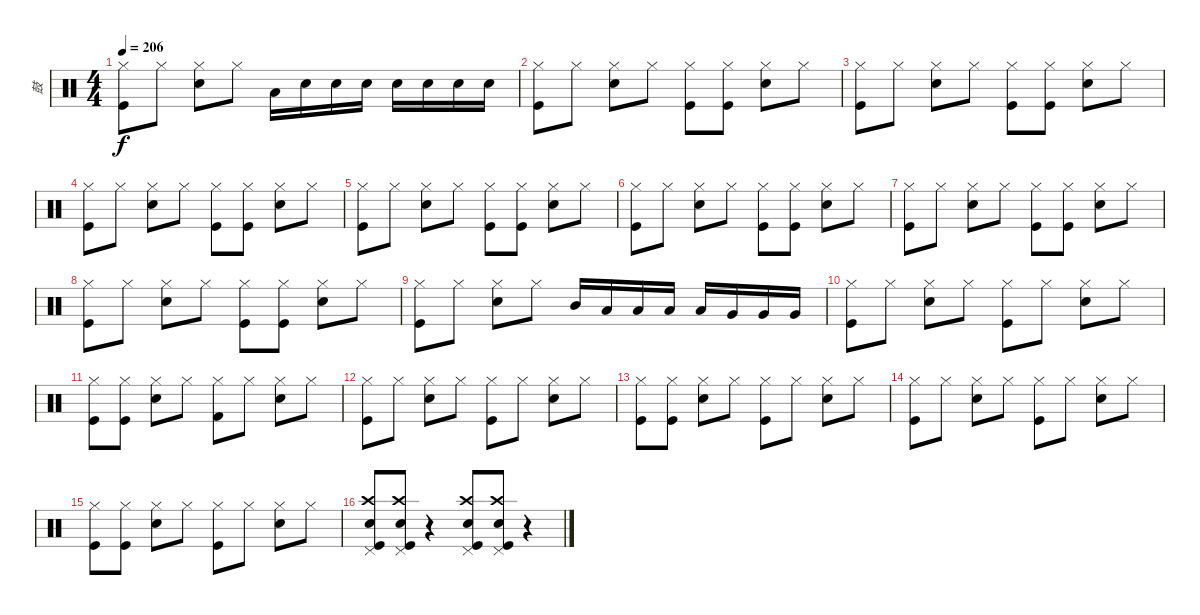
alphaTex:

\track ("鼓" "鼓") {instrument percussion}
\staff {score}
\articulation defaults
\ts (4 4)
\tempo 206
\clef neutral
\ks c
("Hi-Hat (closed)" "Kick (hit)").8{dy f} "Hi-Hat (closed)".8 ("Hi-Hat (closed)" "Electric Snare (hit)").8 "Hi-Hat (closed)".8 "Low Tom (hit)".16 "Snare (hit) 2".16 "Snare (hit) 2".16 "Snare (hit) 2".16 "Snare (hit) 2".16 "Snare (hit) 2".16 "Snare (hit) 2".16 "Snare (hit) 2".16 |
("Hi-Hat (closed)" "Kick (hit)").8 "Hi-Hat (closed)".8 ("Hi-Hat (closed)" "Electric Snare (hit)").8 "Hi-Hat (closed)".8 ("Hi-Hat (closed)" "Kick (hit)").8 ("Hi-Hat (closed)" "Kick (hit)").8 ("Hi-Hat (closed)" "Electric Snare (hit)").8 "Hi-Hat (closed)".8 |
("Hi-Hat (closed)" "Kick (hit)").8 "Hi-Hat (closed)".8 ("Hi-Hat (closed)" "Electric Snare (hit)").8 "Hi-Hat (closed)".8 ("Hi-Hat (closed)" "Kick (hit)").8 ("Hi-Hat (closed)" "Kick (hit)").8 ("Hi-Hat (closed)" "Electric Snare (hit)").8 "Hi-Hat (closed)".8 |
("Hi-Hat (closed)" "Kick (hit)").8 "Hi-Hat (closed)".8 ("Hi-Hat (closed)" "Electric Snare (hit)").8 "Hi-Hat (closed)".8 ("Hi-Hat (closed)" "Kick (hit)").8 ("Hi-Hat (closed)" "Kick (hit)").8 ("Hi-Hat (closed)" "Electric Snare (hit)").8 "Hi-Hat (closed)".8 |
("Hi-Hat (closed)" "Kick (hit)").8 "Hi-Hat (closed)".8 ("Hi-Hat (closed)" "Electric Snare (hit)").8 "Hi-Hat (closed)".8 ("Hi-Hat (closed)" "Kick (hit)").8 ("Hi-Hat (closed)" "Kick (hit)").8 ("Hi-Hat (closed)" "Electric Snare (hit)").8 "Hi-Hat (closed)".8 |
("Hi-Hat (closed)" "Kick (hit)").8 "Hi-Hat (closed)".8 ("Hi-Hat (closed)" "Electric Snare (hit)").8 "Hi-Hat (closed)".8 ("Hi-Hat (closed)" "Kick (hit)").8 ("Hi-Hat (closed)" "Kick (hit)").8 ("Hi-Hat (closed)" "Electric Snare (hit)").8 "Hi-Hat (closed)".8 |
("Hi-Hat (closed)" "Kick (hit)").8 "Hi-Hat (closed)".8 ("Hi-Hat (closed)" "Electric Snare (hit)").8 "Hi-Hat (closed)".8 ("Hi-Hat (closed)" "Kick (hit)").8 ("Hi-Hat (closed)" "Kick (hit)").8 ("Hi-Hat (closed)" "Electric Snare (hit)").8 "Hi-Hat (closed)".8 |
("Hi-Hat (closed)" "Kick (hit)").8 "Hi-Hat (closed)".8 ("Hi-Hat (closed)" "Electric Snare (hit)").8 "Hi-Hat (closed)".8 ("Hi-Hat (closed)" "Kick (hit)").8 ("Hi-Hat (closed)" "Kick (hit)").8 ("Hi-Hat (closed)" "Electric Snare (hit)").8 "Hi-Hat (closed)".8 |
("Hi-Hat (closed)" "Kick (hit)").8 "Hi-Hat (closed)".8 ("Hi-Hat (closed)" "Electric Snare (hit)").8 "Hi-Hat (closed)".8 "Mid Tom (hit)".16 "Low Tom (hit)".16 "Low Tom (hit)".16 "Low Tom (hit)".16 "Low Tom (hit)".16 "Very Low Tom (hit)".16 "Very Low Tom (hit)".16 "Very Low Tom (hit)".16 |
("Hi-Hat (closed)" "Kick (hit)").8 "Hi-Hat (closed)".8 ("Hi-Hat (closed)" "Electric Snare (hit)").8 "Hi-Hat (closed)".8 ("Hi-Hat (closed)" "Kick (hit)").8 "Hi-Hat (closed)".8 ("Hi-Hat (closed)" "Electric Snare (hit)").8 "Hi-Hat (closed)".8 |
("Hi-Hat (closed)" "Kick (hit)").8 ("Hi-Hat (closed)" "Kick (hit)").8 ("Hi-Hat (closed)" "Electric Snare (hit)").8 "Hi-Hat (closed)".8 ("Hi-Hat (closed)" "Kick (hit) 2").8 "Hi-Hat (closed)".8 ("Hi-Hat (closed)" "Electric Snare (hit)").8 "Hi-Hat (closed)".8 |
("Hi-Hat (closed)" "Kick (hit)").8 "Hi-Hat (closed)".8 ("Hi-Hat (closed)" "Electric Snare (hit)").8 "Hi-Hat (closed)".8 ("Hi-Hat (closed)" "Kick (hit)").8 "Hi-Hat (closed)".8 ("Hi-Hat (closed)" "Electric Snare (hit)").8 "Hi-Hat (closed)".8 |
("Hi-Hat (closed)" "Kick (hit)").8 ("Hi-Hat (closed)" "Kick (hit)").8 ("Hi-Hat (closed)" "Electric Snare (hit)").8 "Hi-Hat (closed)".8 ("Hi-Hat (closed)" "Kick (hit)").8 "Hi-Hat (closed)".8 ("Hi-Hat (closed)" "Electric Snare (hit)").8 "Hi-Hat (closed)".8 |
("Hi-Hat (closed)" "Kick (hit)").8 "Hi-Hat (closed)".8 ("Hi-Hat (closed)" "Electric Snare (hit)").8 "Hi-Hat (closed)".8 ("Hi-Hat (closed)" "Kick (hit)").8 "Hi-Hat (closed)".8 ("Hi-Hat (closed)" "Electric Snare (hit)").8 "Hi-Hat (closed)".8 |
("Hi-Hat (closed)" "Kick (hit)").8 ("Hi-Hat (closed)" "Kick (hit)").8 ("Hi-Hat (closed)" "Electric Snare (hit)").8 "Hi-Hat (closed)".8 ("Hi-Hat (closed)" "Kick (hit)").8 "Hi-Hat (closed)".8 ("Hi-Hat (closed)" "Electric Snare (hit)").8 "Hi-Hat (closed)".8 |
("Crash high (hit)" "Snare (hit) 2" "Pedal Hi-Hat (hit)" "Kick (hit)").8 ("Crash high (hit)" "Snare (hit) 2" "Pedal Hi-Hat (hit)" "Kick (hit)").8 r.4 ("Crash high (hit)" "Snare (hit) 2" "Pedal Hi-Hat (hit)" "Kick (hit)").8 ("Crash high (hit)" "Snare (hit) 2" "Pedal Hi-Hat (hit)" "Kick (hit)").8 r.4
